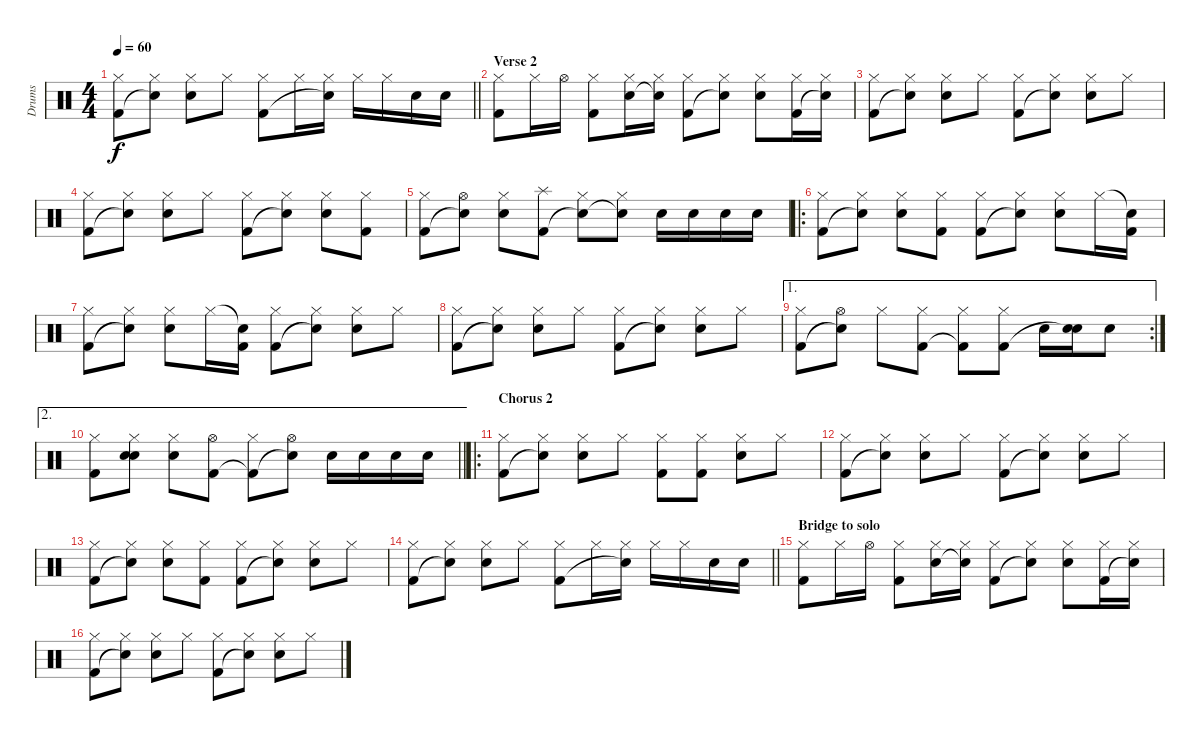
\track ("Drums" "Drums") {instrument percussion}
\staff {score}
\articulation defaults
\ts (4 4)
\tempo 60
\clef neutral
\barLineRight lightlight
\ks c
("Hi-Hat (closed)" "Kick (hit) 2").8{dy f} ("Hi-Hat (closed)" "Snare (hit)"{t}).8 ("Hi-Hat (closed)" "Snare (hit) 2").8 "Hi-Hat (closed)".8 ("Hi-Hat (closed)" "Kick (hit) 2").8 "Hi-Hat (closed)".16 ("Hi-Hat (closed)" "Snare (hit)"{t}).16 "Hi-Hat (closed)".16 "Hi-Hat (closed)".16 "Snare (hit) 2".16 "Snare (hit) 2".16 |
\section ("" "Verse 2")
("Hi-Hat (closed)" "Kick (hit) 2").8 "Hi-Hat (closed)".16 "Hi-Hat (open)".16 ("Hi-Hat (closed)" "Kick (hit) 2").8 ("Hi-Hat (closed)" "Snare (hit) 2").16 ("Hi-Hat (closed)" "Snare (hit)"{t}).16 ("Hi-Hat (closed)" "Kick (hit) 2").8 ("Hi-Hat (closed)" "Snare (hit)"{t}).8 ("Hi-Hat (closed)" "Snare (hit) 2").8 ("Hi-Hat (closed)" "Kick (hit) 2").16 ("Hi-Hat (closed)" "Snare (hit)"{t}).16 |
("Hi-Hat (closed)" "Kick (hit) 2").8 ("Hi-Hat (closed)" "Snare (hit)"{t}).8 ("Hi-Hat (closed)" "Snare (hit) 2").8 "Hi-Hat (closed)".8 ("Hi-Hat (closed)" "Kick (hit) 2").8 ("Hi-Hat (closed)" "Snare (hit)"{t}).8 ("Hi-Hat (closed)" "Snare (hit) 2").8 "Hi-Hat (closed)".8 |
("Hi-Hat (closed)" "Kick (hit) 2").8 ("Hi-Hat (closed)" "Snare (hit)"{t}).8 ("Hi-Hat (closed)" "Snare (hit) 2").8 "Hi-Hat (closed)".8 ("Hi-Hat (closed)" "Kick (hit) 2").8 ("Hi-Hat (closed)" "Snare (hit)"{t}).8 ("Hi-Hat (closed)" "Snare (hit) 2").8 ("Hi-Hat (closed)" "Kick (hit) 2").8 |
("Hi-Hat (closed)" "Kick (hit) 2").8 ("Hi-Hat (open)" "Snare (hit)"{t}).8 ("Hi-Hat (closed)" "Snare (hit) 2").8 ("Splash (hit)" "Kick (hit) 2").8 ("Hi-Hat (closed)" "Snare (hit)"{t}).8 ("Hi-Hat (closed)" "Snare (hit)"{t}).8 "Snare (hit) 2".16 "Snare (hit) 2".16 "Snare (hit) 2".16 "Snare (hit) 2".16 |
\ro
("Hi-Hat (closed)" "Kick (hit) 2").8 ("Hi-Hat (closed)" "Snare (hit)"{t}).8 ("Hi-Hat (closed)" "Snare (hit) 2").8 ("Hi-Hat (closed)" "Kick (hit) 2").8 ("Hi-Hat (closed)" "Kick (hit) 2").8 ("Hi-Hat (closed)" "Snare (hit)"{t}).8 ("Hi-Hat (closed)" "Snare (hit) 2").8 "Hi-Hat (closed)".16 ("Snare (hit)"{t} "Kick (hit) 2").16 |
("Hi-Hat (closed)" "Kick (hit) 2").8 ("Hi-Hat (closed)" "Snare (hit)"{t}).8 ("Hi-Hat (closed)" "Snare (hit) 2").8 "Hi-Hat (closed)".16 ("Snare (hit)"{t} "Kick (hit) 2").16 ("Hi-Hat (closed)" "Kick (hit) 2").8 ("Hi-Hat (closed)" "Snare (hit)"{t}).8 ("Hi-Hat (closed)" "Snare (hit) 2").8 "Hi-Hat (closed)".8 |
("Hi-Hat (closed)" "Kick (hit) 2").8 ("Hi-Hat (closed)" "Snare (hit)"{t}).8 ("Hi-Hat (closed)" "Snare (hit) 2").8 "Hi-Hat (closed)".8 ("Hi-Hat (closed)" "Kick (hit) 2").8 ("Hi-Hat (closed)" "Snare (hit)"{t}).8 ("Hi-Hat (closed)" "Snare (hit) 2").8 "Hi-Hat (closed)".8 |
\ae 1
\rc 2
("Hi-Hat (closed)" "Kick (hit) 2").8 ("Hi-Hat (open)" "Snare (hit)"{t}).8 "Hi-Hat (closed)".8 ("Hi-Hat (closed)" "Kick (hit) 2").8 ("Hi-Hat (closed)" "Kick (hit) 2"{t}).8 ("Hi-Hat (closed)" "Kick (hit) 2").8 "Snare (hit) 2".16 ("Snare (hit) 2" "Snare (hit)"{t}).16 "Snare (hit) 2".8 |
\ae 2
\barLineRight lightlight
("Hi-Hat (closed)" "Kick (hit) 2").8 ("Hi-Hat (closed)" "Snare (hit) 2" "Snare (hit)").8 ("Hi-Hat (closed)" "Snare (hit) 2").8 ("Hi-Hat (open)" "Kick (hit) 2").8 ("Hi-Hat (closed)" "Kick (hit) 2"{t}).8 ("Hi-Hat (open)" "Snare (hit)"{t}).8 "Snare (hit) 2".16 "Snare (hit) 2".16 "Snare (hit) 2".16 "Snare (hit) 2".16 |
\ro
\section ("" "Chorus 2")
("Hi-Hat (closed)" "Kick (hit) 2").8 ("Hi-Hat (closed)" "Snare (hit)"{t}).8 ("Hi-Hat (closed)" "Snare (hit) 2").8 "Hi-Hat (closed)".8 ("Hi-Hat (closed)" "Kick (hit) 2").8 ("Hi-Hat (closed)" "Kick (hit) 2").8 ("Hi-Hat (closed)" "Snare (hit) 2").8 "Hi-Hat (closed)".8 |
("Hi-Hat (closed)" "Kick (hit) 2").8 ("Hi-Hat (closed)" "Snare (hit)"{t}).8 ("Hi-Hat (closed)" "Snare (hit) 2").8 "Hi-Hat (closed)".8 ("Hi-Hat (closed)" "Kick (hit) 2").8 ("Hi-Hat (closed)" "Snare (hit)"{t}).8 ("Hi-Hat (closed)" "Snare (hit) 2").8 "Hi-Hat (closed)".8 |
("Hi-Hat (closed)" "Kick (hit) 2").8 ("Hi-Hat (closed)" "Snare (hit)"{t}).8 ("Hi-Hat (closed)" "Snare (hit) 2").8 ("Hi-Hat (closed)" "Kick (hit) 2").8 ("Hi-Hat (closed)" "Kick (hit) 2").8 ("Hi-Hat (closed)" "Snare (hit)"{t}).8 ("Hi-Hat (closed)" "Snare (hit) 2").8 "Hi-Hat (closed)".8 |
\barLineRight lightlight
("Hi-Hat (closed)" "Kick (hit) 2").8 ("Hi-Hat (closed)" "Snare (hit)"{t}).8 ("Hi-Hat (closed)" "Snare (hit) 2").8 "Hi-Hat (closed)".8 ("Hi-Hat (closed)" "Kick (hit) 2").8 "Hi-Hat (closed)".16 ("Hi-Hat (closed)" "Snare (hit)"{t}).16 "Hi-Hat (closed)".16 "Hi-Hat (closed)".16 "Snare (hit) 2".16 "Snare (hit) 2".16 |
\section ("" "Bridge to solo")
("Hi-Hat (closed)" "Kick (hit) 2").8 "Hi-Hat (closed)".16 "Hi-Hat (open)".16 ("Hi-Hat (closed)" "Kick (hit) 2").8 ("Hi-Hat (closed)" "Snare (hit) 2").16 ("Hi-Hat (closed)" "Snare (hit)"{t}).16 ("Hi-Hat (closed)" "Kick (hit) 2").8 ("Hi-Hat (closed)" "Snare (hit)"{t}).8 ("Hi-Hat (closed)" "Snare (hit) 2").8 ("Hi-Hat (closed)" "Kick (hit) 2").16 ("Hi-Hat (closed)" "Snare (hit)"{t}).16 |
("Hi-Hat (closed)" "Kick (hit) 2").8 ("Hi-Hat (closed)" "Snare (hit)"{t}).8 ("Hi-Hat (closed)" "Snare (hit) 2").8 "Hi-Hat (closed)".8 ("Hi-Hat (closed)" "Kick (hit) 2").8 ("Hi-Hat (closed)" "Snare (hit)"{t}).8 ("Hi-Hat (closed)" "Snare (hit) 2").8 "Hi-Hat (closed)".8
